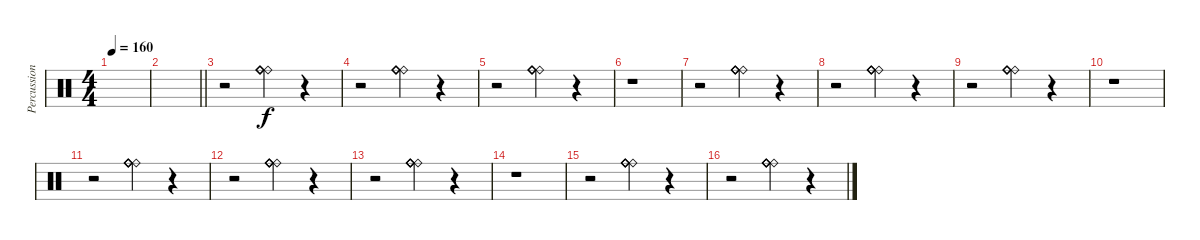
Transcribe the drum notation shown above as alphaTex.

\track ("Percussion" "Percussion") {instrument percussion}
\staff {score}
\articulation defaults
\ts (4 4)
\tempo 160
\clef neutral
\ks c
|
\barLineRight lightlight
|
r.2 ("Ride (bell)" "Ride (bell)" "Ride (bell)" "Ride (bell)" "Ride (bell)" "Ride (bell)").4 r.4 |
r.2 ("Ride (bell)" "Ride (bell)" "Ride (bell)" "Ride (bell)" "Ride (bell)" "Ride (bell)").4 r.4 |
r.2 ("Ride (bell)" "Ride (bell)" "Ride (bell)" "Ride (bell)" "Ride (bell)" "Ride (bell)").4 r.4 |
r.1 |
r.2 ("Ride (bell)" "Ride (bell)" "Ride (bell)" "Ride (bell)" "Ride (bell)" "Ride (bell)").4 r.4 |
r.2 ("Ride (bell)" "Ride (bell)" "Ride (bell)" "Ride (bell)" "Ride (bell)" "Ride (bell)").4 r.4 |
r.2 ("Ride (bell)" "Ride (bell)" "Ride (bell)" "Ride (bell)" "Ride (bell)" "Ride (bell)").4 r.4 |
r.1 |
r.2 ("Ride (bell)" "Ride (bell)" "Ride (bell)" "Ride (bell)" "Ride (bell)" "Ride (bell)").4 r.4 |
r.2 ("Ride (bell)" "Ride (bell)" "Ride (bell)" "Ride (bell)" "Ride (bell)" "Ride (bell)").4 r.4 |
r.2 ("Ride (bell)" "Ride (bell)" "Ride (bell)" "Ride (bell)" "Ride (bell)" "Ride (bell)").4 r.4 |
r.1 |
r.2 ("Ride (bell)" "Ride (bell)" "Ride (bell)" "Ride (bell)" "Ride (bell)" "Ride (bell)").4 r.4 |
r.2 ("Ride (bell)" "Ride (bell)" "Ride (bell)" "Ride (bell)" "Ride (bell)" "Ride (bell)").4 r.4
